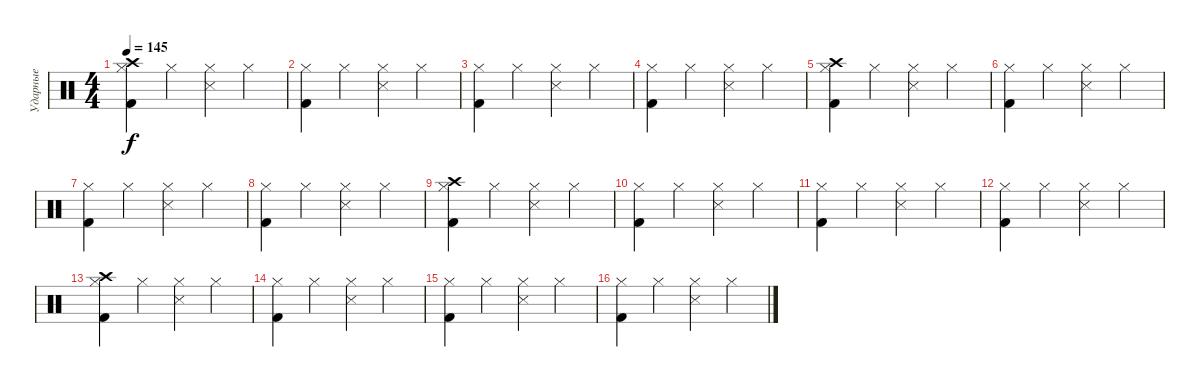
\track ("Ударные" "Ударные") {instrument percussion}
\staff {score}
\articulation defaults
\ts (4 4)
\tempo 145
\clef neutral
\ks c
("Kick (hit) 2" "Hi-Hat (closed)" "Crash high (hit)").4{dy f} "Hi-Hat (closed)".4 ("Snare (side stick) 3" "Hi-Hat (closed)").4 "Hi-Hat (closed)".4 |
("Hi-Hat (closed)" "Kick (hit) 2").4 "Hi-Hat (closed)".4 ("Hi-Hat (closed)" "Snare (side stick) 3").4 "Hi-Hat (closed)".4 |
("Kick (hit) 2" "Hi-Hat (closed)").4 "Hi-Hat (closed)".4 ("Snare (side stick) 3" "Hi-Hat (closed)").4 "Hi-Hat (closed)".4 |
("Kick (hit) 2" "Hi-Hat (closed)").4 "Hi-Hat (closed)".4 ("Hi-Hat (closed)" "Snare (side stick) 3").4 "Hi-Hat (closed)".4 |
("Hi-Hat (closed)" "Crash high (hit)" "Kick (hit) 2").4 "Hi-Hat (closed)".4 ("Hi-Hat (closed)" "Snare (side stick) 3").4 "Hi-Hat (closed)".4 |
("Hi-Hat (closed)" "Kick (hit) 2").4 "Hi-Hat (closed)".4 ("Hi-Hat (closed)" "Snare (side stick) 3").4 "Hi-Hat (closed)".4 |
("Hi-Hat (closed)" "Kick (hit) 2").4 "Hi-Hat (closed)".4 ("Hi-Hat (closed)" "Snare (side stick) 3").4 "Hi-Hat (closed)".4 |
("Kick (hit) 2" "Hi-Hat (closed)").4 "Hi-Hat (closed)".4 ("Hi-Hat (closed)" "Snare (side stick) 3").4 "Hi-Hat (closed)".4 |
("Crash high (hit)" "Kick (hit) 2" "Hi-Hat (closed)").4 "Hi-Hat (closed)".4 ("Snare (side stick) 3" "Hi-Hat (closed)").4 "Hi-Hat (closed)".4 |
("Hi-Hat (closed)" "Kick (hit) 2").4 "Hi-Hat (closed)".4 ("Hi-Hat (closed)" "Snare (side stick) 3").4 "Hi-Hat (closed)".4 |
("Hi-Hat (closed)" "Kick (hit) 2").4 "Hi-Hat (closed)".4 ("Hi-Hat (closed)" "Snare (side stick) 3").4 "Hi-Hat (closed)".4 |
("Kick (hit) 2" "Hi-Hat (closed)").4 "Hi-Hat (closed)".4 ("Snare (side stick) 3" "Hi-Hat (closed)").4 "Hi-Hat (closed)".4 |
("Hi-Hat (closed)" "Kick (hit) 2" "Crash high (hit)").4 "Hi-Hat (closed)".4 ("Hi-Hat (closed)" "Snare (side stick) 3").4 "Hi-Hat (closed)".4 |
("Hi-Hat (closed)" "Kick (hit) 2").4 "Hi-Hat (closed)".4 ("Snare (side stick) 3" "Hi-Hat (closed)").4 "Hi-Hat (closed)".4 |
("Kick (hit) 2" "Hi-Hat (closed)").4 "Hi-Hat (closed)".4 ("Hi-Hat (closed)" "Snare (side stick) 3").4 "Hi-Hat (closed)".4 |
("Kick (hit) 2" "Hi-Hat (closed)").4 "Hi-Hat (closed)".4 ("Snare (side stick) 3" "Hi-Hat (closed)").4 "Hi-Hat (closed)".4
